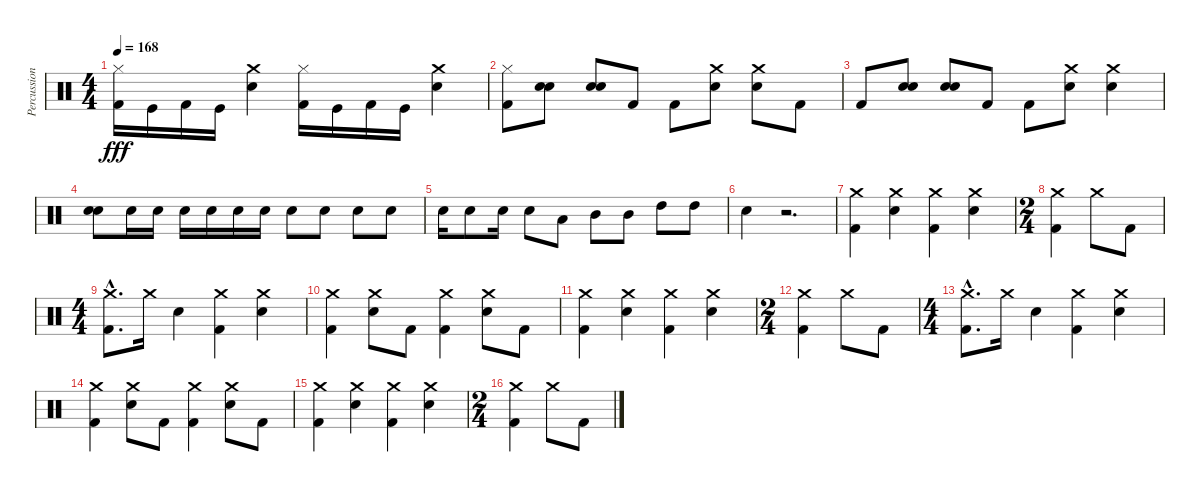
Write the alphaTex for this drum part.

\track ("Percussion" "Percussion") {instrument percussion}
\staff {score}
\articulation defaults
\ts (4 4)
\tempo 168
\clef neutral
\ks c
("Hi-Hat (closed)" "Kick (hit) 2").16{dy fff} "Kick (hit)".16 "Kick (hit) 2".16 "Kick (hit)".16 ("Crash medium (hit)" "Snare (hit) 2").4 ("Hi-Hat (closed)" "Kick (hit) 2").16 "Kick (hit)".16 "Kick (hit) 2".16 "Kick (hit)".16 ("Crash medium (hit)" "Snare (hit) 2").4 |
("Kick (hit) 2" "Hi-Hat (closed)").8 ("Snare (hit) 2" "Snare (hit) 2").8 ("Snare (hit) 2" "Snare (hit) 2").8 "Kick (hit) 2".8 "Kick (hit) 2".8 ("Snare (hit) 2" "Crash medium (hit)").8 ("Snare (hit) 2" "Crash medium (hit)").8 "Kick (hit) 2".8 |
"Kick (hit) 2".8 ("Snare (hit) 2" "Snare (hit) 2").8 ("Snare (hit) 2" "Snare (hit) 2").8 "Kick (hit) 2".8 "Kick (hit) 2".8 ("Crash medium (hit)" "Snare (hit) 2").8 ("Snare (hit) 2" "Crash medium (hit)").4 |
("Snare (hit) 2" "Snare (hit) 2").8 "Snare (hit) 2".16 "Snare (hit) 2".16 "Snare (hit) 2".16 "Snare (hit) 2".16 "Snare (hit) 2".16 "Snare (hit) 2".16 "Snare (hit) 2".8 "Snare (hit) 2".8 "Snare (hit) 2".8 "Snare (hit) 2".8 |
"Snare (hit) 2".16 "Snare (hit) 2".8 "Snare (hit) 2".16 "Snare (hit) 2".8 "Low Tom (hit)".8 "Mid Tom (hit)".8 "Mid Tom (hit)".8 "High Tom (hit)".8 "High Tom (hit)".8 |
"Snare (hit) 2".4 r.2{d} |
("Kick (hit) 2" "Crash medium (hit)").4 ("Snare (hit) 2" "Crash medium (hit)").4 ("Kick (hit) 2" "Crash medium (hit)").4 ("Snare (hit) 2" "Crash medium (hit)").4 |
\ts (2 4)
("Kick (hit) 2" "Crash medium (hit)").4 "Crash medium (hit)".8 "Kick (hit) 2".8 |
\ts (4 4)
("Kick (hit) 2" "Crash medium (hit)"{hac}).8{d} "Crash medium (hit)".16 "Snare (hit) 2".4 ("Kick (hit) 2" "Crash medium (hit)").4 ("Snare (hit) 2" "Crash medium (hit)").4 |
("Kick (hit) 2" "Crash medium (hit)").4 ("Snare (hit) 2" "Crash medium (hit)").8 "Kick (hit) 2".8 ("Kick (hit) 2" "Crash medium (hit)").4 ("Snare (hit) 2" "Crash medium (hit)").8 "Kick (hit) 2".8 |
("Kick (hit) 2" "Crash medium (hit)").4 ("Snare (hit) 2" "Crash medium (hit)").4 ("Kick (hit) 2" "Crash medium (hit)").4 ("Snare (hit) 2" "Crash medium (hit)").4 |
\ts (2 4)
("Kick (hit) 2" "Crash medium (hit)").4 "Crash medium (hit)".8 "Kick (hit) 2".8 |
\ts (4 4)
("Kick (hit) 2" "Crash medium (hit)"{hac}).8{d} "Crash medium (hit)".16 "Snare (hit) 2".4 ("Kick (hit) 2" "Crash medium (hit)").4 ("Snare (hit) 2" "Crash medium (hit)").4 |
("Kick (hit) 2" "Crash medium (hit)").4 ("Snare (hit) 2" "Crash medium (hit)").8 "Kick (hit) 2".8 ("Kick (hit) 2" "Crash medium (hit)").4 ("Snare (hit) 2" "Crash medium (hit)").8 "Kick (hit) 2".8 |
("Kick (hit) 2" "Crash medium (hit)").4 ("Snare (hit) 2" "Crash medium (hit)").4 ("Kick (hit) 2" "Crash medium (hit)").4 ("Snare (hit) 2" "Crash medium (hit)").4 |
\ts (2 4)
("Kick (hit) 2" "Crash medium (hit)").4 "Crash medium (hit)".8 "Kick (hit) 2".8
